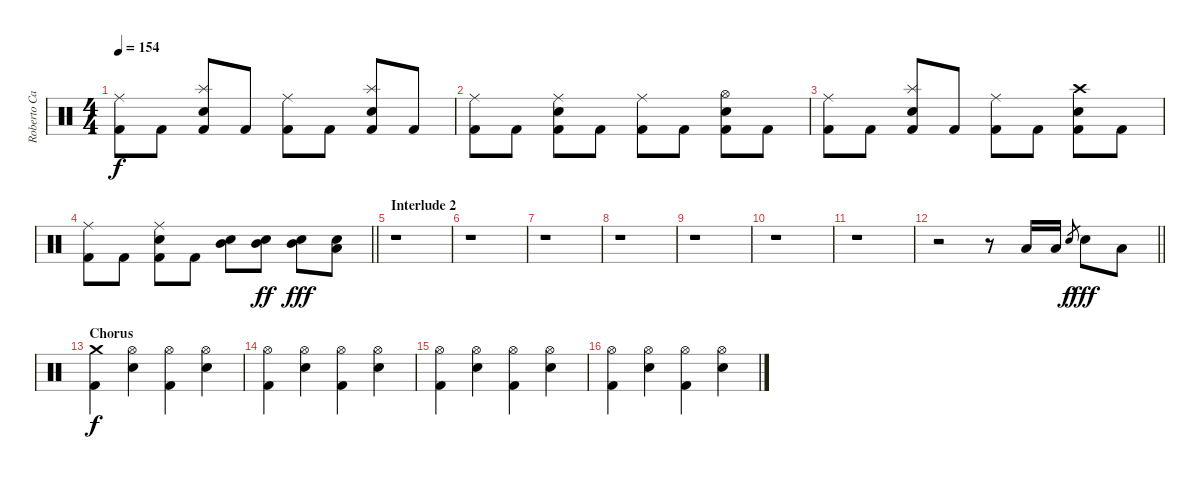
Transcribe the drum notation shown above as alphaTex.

\track ("Roberto Cappa - Drums" "Roberto Ca") {instrument percussion}
\staff
\articulation defaults
\ts (4 4)
\tempo 154
\clef neutral
\ks c
("Ride (middle)" "Kick (hit) 2").8{dy f} "Kick (hit) 2".8 ("Splash (hit)" "Kick (hit) 2" "Electric Snare (hit)").8 "Kick (hit) 2".8 ("Ride (middle)" "Kick (hit) 2").8 "Kick (hit) 2".8 ("Splash (hit)" "Kick (hit) 2" "Electric Snare (hit)").8 "Kick (hit) 2".8 |
("Ride (middle)" "Kick (hit) 2").8 "Kick (hit) 2".8 ("Ride (middle)" "Kick (hit) 2" "Electric Snare (hit)").8 "Kick (hit) 2".8 ("Ride (middle)" "Kick (hit) 2").8 "Kick (hit) 2".8 ("Hi-Hat (open)" "Kick (hit) 2" "Electric Snare (hit)").8 "Kick (hit) 2".8 |
("Ride (middle)" "Kick (hit) 2").8 "Kick (hit) 2".8 ("Splash (hit)" "Kick (hit) 2" "Electric Snare (hit)").8 "Kick (hit) 2".8 ("Ride (middle)" "Kick (hit) 2").8 "Kick (hit) 2".8 ("Crash high (hit)" "Kick (hit) 2" "Electric Snare (hit)").8 "Kick (hit) 2".8 |
\barLineRight lightlight
("Ride (middle)" "Kick (hit) 2").8 "Kick (hit) 2".8 ("Ride (middle)" "Kick (hit) 2" "Electric Snare (hit)").8 "Kick (hit) 2".8 ("Mid Tom (hit)" "Electric Snare (hit)").8 ("Mid Tom (hit)" "Electric Snare (hit)").8{dy ff} ("Mid Tom (hit)" "Electric Snare (hit)").8{dy fff} ("Low Floor Tom (hit)" "Electric Snare (hit)").8 |
\section ("" "Interlude 2")
r.1 |
r.1 |
r.1 |
r.1 |
r.1 |
r.1 |
r.1 |
\barLineRight lightlight
r.2 r.8 "Low Floor Tom (hit)".16 "Low Floor Tom (hit)".16 "Electric Snare (hit)".8{gr dy f} "Electric Snare (hit)".8{dy fff} "Low Floor Tom (hit)".8 |
\section ("" "Chorus")
("Crash medium (hit)" "Kick (hit) 2").4{dy f} ("Hi-Hat (open)" "Electric Snare (hit)").4 ("Hi-Hat (open)" "Kick (hit) 2").4 ("Hi-Hat (open)" "Electric Snare (hit)").4 |
("Hi-Hat (open)" "Kick (hit) 2").4 ("Hi-Hat (open)" "Electric Snare (hit)").4 ("Hi-Hat (open)" "Kick (hit) 2").4 ("Hi-Hat (open)" "Electric Snare (hit)").4 |
("Hi-Hat (open)" "Kick (hit) 2").4 ("Hi-Hat (open)" "Electric Snare (hit)").4 ("Hi-Hat (open)" "Kick (hit) 2").4 ("Hi-Hat (open)" "Electric Snare (hit)").4 |
("Hi-Hat (open)" "Kick (hit) 2").4 ("Hi-Hat (open)" "Electric Snare (hit)").4 ("Hi-Hat (open)" "Kick (hit) 2").4 ("Hi-Hat (open)" "Electric Snare (hit)").4
